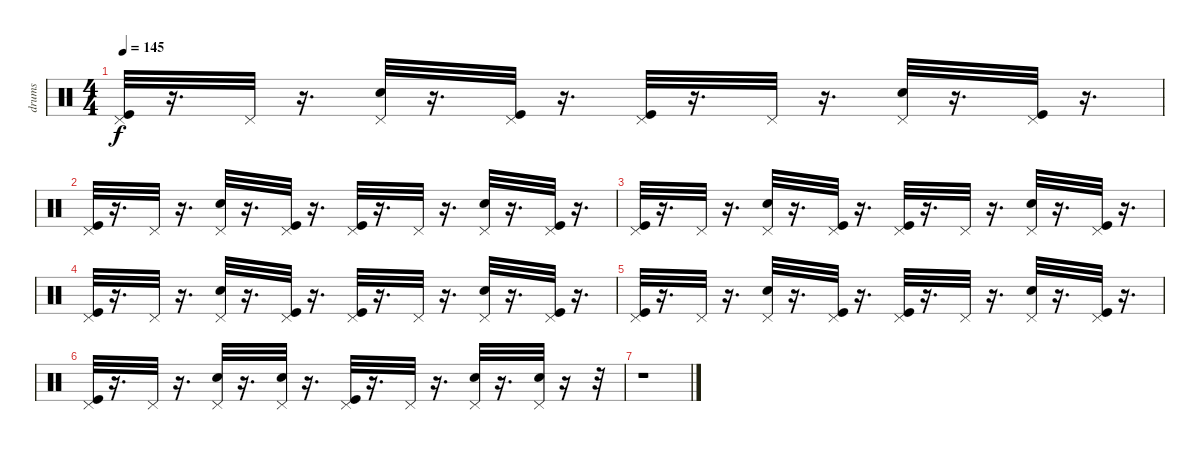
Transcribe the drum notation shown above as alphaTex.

\track ("drums" "drums") {instrument percussion}
\staff {score}
\articulation defaults
\ts (4 4)
\tempo 145
\clef neutral
\ks c
("Pedal Hi-Hat (hit)" "Kick (hit)").32{dy f volume 12} r.16{d} "Pedal Hi-Hat (hit)".32{volume 12} r.16{d} ("Pedal Hi-Hat (hit)" "Electric Snare (hit)").32{volume 12} r.16{d} ("Pedal Hi-Hat (hit)" "Kick (hit)").32{volume 11} r.16{d} ("Pedal Hi-Hat (hit)" "Kick (hit)").32{volume 11} r.16{d} "Pedal Hi-Hat (hit)".32{volume 11} r.16{d} ("Pedal Hi-Hat (hit)" "Electric Snare (hit)").32{volume 10} r.16{d} ("Pedal Hi-Hat (hit)" "Kick (hit)").32{volume 10} r.16{d} |
("Pedal Hi-Hat (hit)" "Kick (hit)").32{volume 10} r.16{d} "Pedal Hi-Hat (hit)".32{volume 10} r.16{d} ("Pedal Hi-Hat (hit)" "Electric Snare (hit)").32{volume 10} r.16{d} ("Pedal Hi-Hat (hit)" "Kick (hit)").32{volume 9} r.16{d} ("Pedal Hi-Hat (hit)" "Kick (hit)").32{volume 9} r.16{d} "Pedal Hi-Hat (hit)".32{volume 9} r.16{d} ("Pedal Hi-Hat (hit)" "Electric Snare (hit)").32{volume 8} r.16{d} ("Pedal Hi-Hat (hit)" "Kick (hit)").32{volume 8} r.16{d} |
("Pedal Hi-Hat (hit)" "Kick (hit)").32{volume 8} r.16{d} "Pedal Hi-Hat (hit)".32{volume 8} r.16{d} ("Pedal Hi-Hat (hit)" "Electric Snare (hit)").32{volume 8} r.16{d} ("Pedal Hi-Hat (hit)" "Kick (hit)").32{volume 7} r.16{d} ("Pedal Hi-Hat (hit)" "Kick (hit)").32{volume 7} r.16{d} "Pedal Hi-Hat (hit)".32{volume 7} r.16{d} ("Pedal Hi-Hat (hit)" "Electric Snare (hit)").32{volume 6} r.16{d} ("Pedal Hi-Hat (hit)" "Kick (hit)").32{volume 6} r.16{d} |
("Pedal Hi-Hat (hit)" "Kick (hit)").32{volume 6} r.16{d} "Pedal Hi-Hat (hit)".32{volume 6} r.16{d} ("Pedal Hi-Hat (hit)" "Electric Snare (hit)").32{volume 6} r.16{d} ("Pedal Hi-Hat (hit)" "Kick (hit)").32{volume 5} r.16{d} ("Pedal Hi-Hat (hit)" "Kick (hit)").32{volume 5} r.16{d} "Pedal Hi-Hat (hit)".32{volume 5} r.16{d} ("Pedal Hi-Hat (hit)" "Electric Snare (hit)").32{volume 5} r.16{d} ("Pedal Hi-Hat (hit)" "Kick (hit)").32{volume 4} r.16{d} |
("Pedal Hi-Hat (hit)" "Kick (hit)").32{volume 4} r.16{d} "Pedal Hi-Hat (hit)".32{volume 4} r.16{d} ("Pedal Hi-Hat (hit)" "Electric Snare (hit)").32{volume 4} r.16{d} ("Pedal Hi-Hat (hit)" "Kick (hit)").32{volume 3} r.16{d} ("Pedal Hi-Hat (hit)" "Kick (hit)").32{volume 3} r.16{d} "Pedal Hi-Hat (hit)".32{volume 3} r.16{d} ("Pedal Hi-Hat (hit)" "Electric Snare (hit)").32{volume 3} r.16{d} ("Pedal Hi-Hat (hit)" "Kick (hit)").32{volume 2} r.16{d} |
("Pedal Hi-Hat (hit)" "Kick (hit)").32{volume 2} r.16{d} "Pedal Hi-Hat (hit)".32{volume 2} r.16{d} ("Pedal Hi-Hat (hit)" "Electric Snare (hit)").32{volume 2} r.16{d} ("Electric Snare (hit)" "Pedal Hi-Hat (hit)").32{volume 1} r.16{d} ("Pedal Hi-Hat (hit)" "Kick (hit)").32{volume 1} r.16{d} "Pedal Hi-Hat (hit)".32{volume 1} r.16{d} ("Electric Snare (hit)" "Pedal Hi-Hat (hit)").32{volume 1} r.16{d} ("Electric Snare (hit)" "Pedal Hi-Hat (hit)").32{volume 0} r.16 r.32 |
r.1
